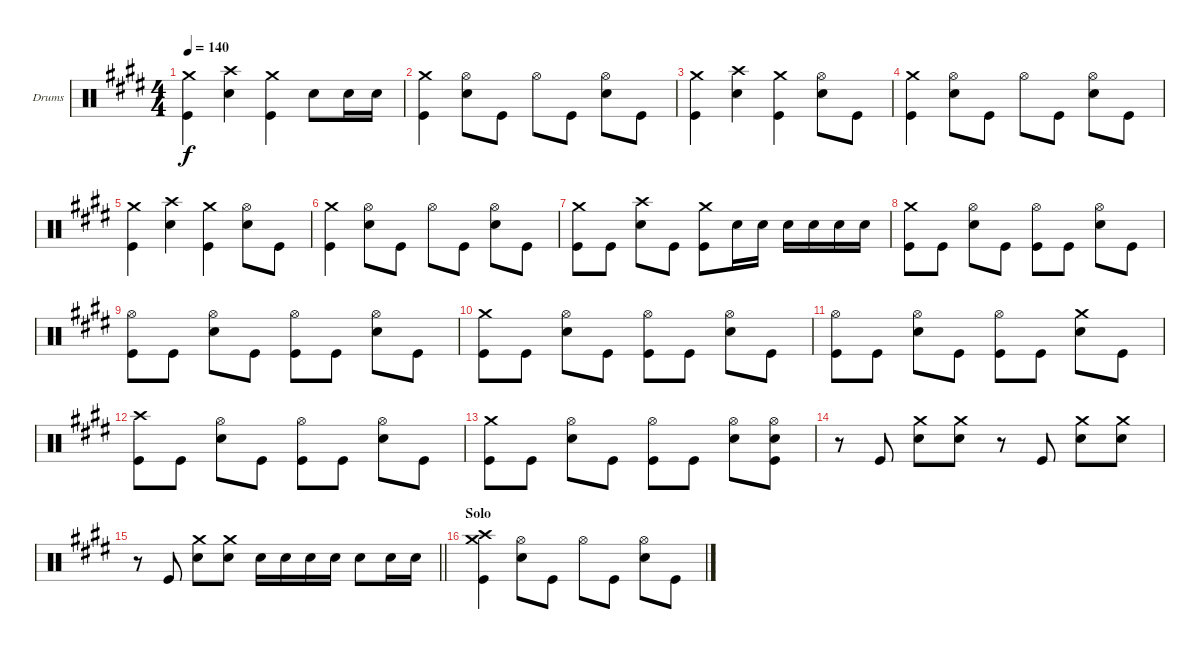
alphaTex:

\bracketExtendMode groupsimilarinstruments
\firstSystemTrackNameOrientation horizontal
\otherSystemsTrackNameOrientation horizontal
\track ("Drumkit" "Drums") {instrument percussion}
\staff {score}
\articulation defaults
\ts (4 4)
\tempo 140
\clef neutral
\ks e
("Crash medium (hit)" "Kick (hit)").4{dy f} ("Crash high (hit)" "Snare (hit) 2").4 ("Crash medium (hit)" "Kick (hit)").4 "Snare (hit) 2".8 "Snare (hit) 2".16 "Snare (hit) 2".16 |
("Crash medium (hit)" "Kick (hit)").4 ("Hi-Hat (open)" "Snare (hit) 2").8 "Kick (hit)".8 "Hi-Hat (open)".8 "Kick (hit)".8 ("Hi-Hat (open)" "Snare (hit) 2").8 "Kick (hit)".8 |
("Crash medium (hit)" "Kick (hit)").4 ("Crash high (hit)" "Snare (hit) 2").4 ("Crash medium (hit)" "Kick (hit)").4 ("Hi-Hat (open)" "Snare (hit) 2").8 "Kick (hit)".8 |
("Crash medium (hit)" "Kick (hit)").4 ("Hi-Hat (open)" "Snare (hit) 2").8 "Kick (hit)".8 "Hi-Hat (open)".8 "Kick (hit)".8 ("Hi-Hat (open)" "Snare (hit) 2").8 "Kick (hit)".8 |
("Crash medium (hit)" "Kick (hit)").4 ("Crash high (hit)" "Snare (hit) 2").4 ("Crash medium (hit)" "Kick (hit)").4 ("Hi-Hat (open)" "Snare (hit) 2").8 "Kick (hit)".8 |
("Crash medium (hit)" "Kick (hit)").4 ("Hi-Hat (open)" "Snare (hit) 2").8 "Kick (hit)".8 "Hi-Hat (open)".8 "Kick (hit)".8 ("Hi-Hat (open)" "Snare (hit) 2").8 "Kick (hit)".8 |
("Crash medium (hit)" "Kick (hit)").8 "Kick (hit)".8 ("Crash high (hit)" "Snare (hit) 2").8 "Kick (hit)".8 ("Crash medium (hit)" "Kick (hit)").8 "Snare (hit) 2".16 "Snare (hit) 2".16 "Snare (hit) 2".16 "Snare (hit) 2".16 "Snare (hit) 2".16 "Snare (hit) 2".16 |
("Crash medium (hit)" "Kick (hit)").8 "Kick (hit)".8 ("Hi-Hat (open)" "Snare (hit) 2").8 "Kick (hit)".8 ("Hi-Hat (open)" "Kick (hit)").8 "Kick (hit)".8 ("Hi-Hat (open)" "Snare (hit) 2").8 "Kick (hit)".8 |
("Hi-Hat (open)" "Kick (hit)").8 "Kick (hit)".8 ("Hi-Hat (open)" "Snare (hit) 2").8 "Kick (hit)".8 ("Hi-Hat (open)" "Kick (hit)").8 "Kick (hit)".8 ("Hi-Hat (open)" "Snare (hit) 2").8 "Kick (hit)".8 |
("Crash medium (hit)" "Kick (hit)").8 "Kick (hit)".8 ("Hi-Hat (open)" "Snare (hit) 2").8 "Kick (hit)".8 ("Hi-Hat (open)" "Kick (hit)").8 "Kick (hit)".8 ("Hi-Hat (open)" "Snare (hit) 2").8 "Kick (hit)".8 |
("Hi-Hat (open)" "Kick (hit)").8 "Kick (hit)".8 ("Hi-Hat (open)" "Snare (hit) 2").8 "Kick (hit)".8 ("Hi-Hat (open)" "Kick (hit)").8 "Kick (hit)".8 ("Crash medium (hit)" "Snare (hit) 2").8 "Kick (hit)".8 |
("Crash high (hit)" "Kick (hit)").8 "Kick (hit)".8 ("Hi-Hat (open)" "Snare (hit) 2").8 "Kick (hit)".8 ("Hi-Hat (open)" "Kick (hit)").8 "Kick (hit)".8 ("Hi-Hat (open)" "Snare (hit) 2").8 "Kick (hit)".8 |
("Crash medium (hit)" "Kick (hit)").8 "Kick (hit)".8 ("Hi-Hat (open)" "Snare (hit) 2").8 "Kick (hit)".8 ("Hi-Hat (open)" "Kick (hit)").8 "Kick (hit)".8 ("Hi-Hat (open)" "Snare (hit) 2").8 ("Hi-Hat (open)" "Snare (hit) 2" "Kick (hit)").8 |
r.8 "Kick (hit)".8 ("Crash medium (hit)" "Snare (hit) 2").8 ("Crash medium (hit)" "Snare (hit) 2").8 r.8 "Kick (hit)".8 ("Crash medium (hit)" "Snare (hit) 2").8 ("Crash medium (hit)" "Snare (hit) 2").8 |
\barLineRight lightlight
r.8 "Kick (hit)".8 ("Crash medium (hit)" "Snare (hit) 2").8 ("Crash medium (hit)" "Snare (hit) 2").8 "Snare (hit) 2".16 "Snare (hit) 2".16 "Snare (hit) 2".16 "Snare (hit) 2".16 "Snare (hit) 2".8 "Snare (hit) 2".16 "Snare (hit) 2".16 |
\section ("" "Solo")
("Crash high (hit)" "Crash medium (hit)" "Kick (hit)").4 ("Hi-Hat (open)" "Snare (hit) 2").8 "Kick (hit)".8 "Hi-Hat (open)".8 "Kick (hit)".8 ("Hi-Hat (open)" "Snare (hit) 2").8 "Kick (hit)".8
